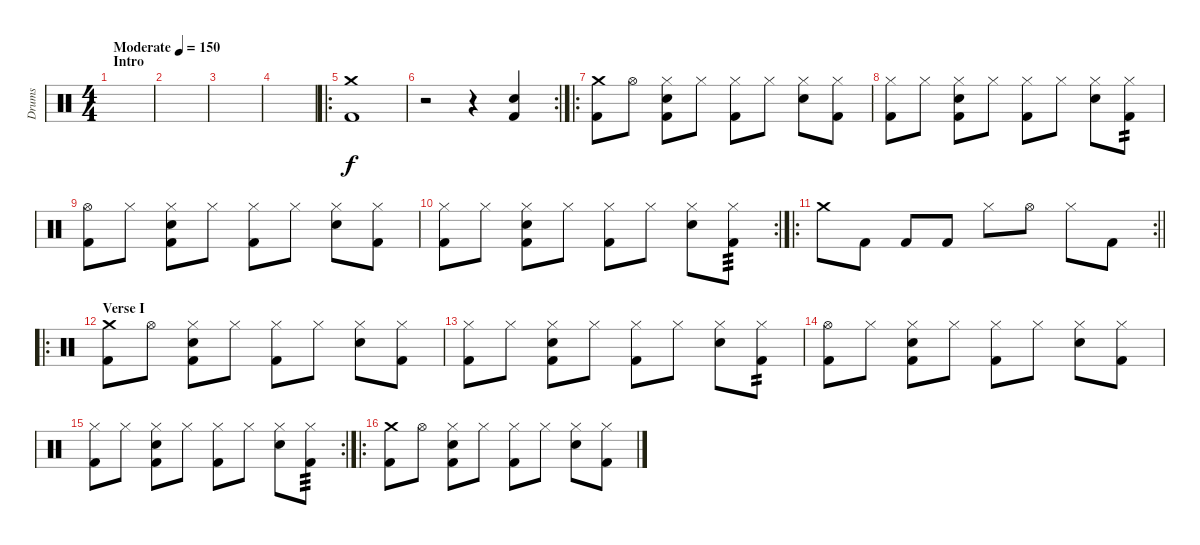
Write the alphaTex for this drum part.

\track ("Drums" "Drums") {instrument percussion}
\staff {score}
\articulation defaults
\ts (4 4)
\section ("" "Intro")
\tempo (150 "Moderate")
\clef neutral
\ks c
|
|
|
|
\ro
("Kick (hit) 2" "Crash medium (hit)").1 |
\rc 2
r.2 r.4 ("Kick (hit) 2" "Snare (hit) 2").4 |
\ro
("Kick (hit) 2" "Crash medium (hit)").8 "Hi-Hat (open)".8 ("Kick (hit) 2" "Snare (hit) 2" "Hi-Hat (closed)").8 "Hi-Hat (closed)".8 ("Kick (hit) 2" "Hi-Hat (closed)").8 "Hi-Hat (closed)".8 ("Snare (hit) 2" "Hi-Hat (closed)").8 ("Kick (hit) 2" "Hi-Hat (closed)").8 |
("Kick (hit) 2" "Hi-Hat (closed)").8 "Hi-Hat (closed)".8 ("Kick (hit) 2" "Snare (hit) 2" "Hi-Hat (closed)").8 "Hi-Hat (closed)".8 ("Kick (hit) 2" "Hi-Hat (closed)").8 "Hi-Hat (closed)".8 ("Snare (hit) 2" "Hi-Hat (closed)").8 ("Kick (hit) 2" "Hi-Hat (closed)").8{tp 2} |
("Kick (hit) 2" "Hi-Hat (open)").8 "Hi-Hat (closed)".8 ("Kick (hit) 2" "Snare (hit) 2" "Hi-Hat (closed)").8 "Hi-Hat (closed)".8 ("Kick (hit) 2" "Hi-Hat (closed)").8 "Hi-Hat (closed)".8 ("Snare (hit) 2" "Hi-Hat (closed)").8 ("Kick (hit) 2" "Hi-Hat (closed)").8 |
\rc 2
("Kick (hit) 2" "Hi-Hat (closed)").8 "Hi-Hat (closed)".8 ("Kick (hit) 2" "Snare (hit) 2" "Hi-Hat (closed)").8 "Hi-Hat (closed)".8 ("Kick (hit) 2" "Hi-Hat (closed)").8 "Hi-Hat (closed)".8 ("Snare (hit) 2" "Hi-Hat (closed)").8 ("Kick (hit) 2" "Hi-Hat (closed)").8{tp 3} |
\ro
\rc 2
\barLineRight lightlight "Crash medium (hit)".8 "Kick (hit) 2".8 "Kick (hit) 2".8 "Kick (hit) 2".8 "Hi-Hat (closed)".8 "Hi-Hat (open)".8 "Hi-Hat (closed)".8 "Kick (hit) 2".8
|
\ro
\section ("" "Verse I")
("Kick (hit) 2" "Crash medium (hit)").8 "Hi-Hat (open)".8 ("Kick (hit) 2" "Snare (hit) 2" "Hi-Hat (closed)").8 "Hi-Hat (closed)".8 ("Kick (hit) 2" "Hi-Hat (closed)").8 "Hi-Hat (closed)".8 ("Snare (hit) 2" "Hi-Hat (closed)").8 ("Kick (hit) 2" "Hi-Hat (closed)").8 |
("Kick (hit) 2" "Hi-Hat (closed)").8 "Hi-Hat (closed)".8 ("Kick (hit) 2" "Snare (hit) 2" "Hi-Hat (closed)").8 "Hi-Hat (closed)".8 ("Kick (hit) 2" "Hi-Hat (closed)").8 "Hi-Hat (closed)".8 ("Snare (hit) 2" "Hi-Hat (closed)").8 ("Kick (hit) 2" "Hi-Hat (closed)").8{tp 2} |
("Kick (hit) 2" "Hi-Hat (open)").8 "Hi-Hat (closed)".8 ("Kick (hit) 2" "Snare (hit) 2" "Hi-Hat (closed)").8 "Hi-Hat (closed)".8 ("Kick (hit) 2" "Hi-Hat (closed)").8 "Hi-Hat (closed)".8 ("Snare (hit) 2" "Hi-Hat (closed)").8 ("Kick (hit) 2" "Hi-Hat (closed)").8 |
\rc 2
("Kick (hit) 2" "Hi-Hat (closed)").8 "Hi-Hat (closed)".8 ("Kick (hit) 2" "Snare (hit) 2" "Hi-Hat (closed)").8 "Hi-Hat (closed)".8 ("Kick (hit) 2" "Hi-Hat (closed)").8 "Hi-Hat (closed)".8 ("Snare (hit) 2" "Hi-Hat (closed)").8 ("Kick (hit) 2" "Hi-Hat (closed)").8{tp 3} |
\ro
("Kick (hit) 2" "Crash medium (hit)").8 "Hi-Hat (open)".8 ("Kick (hit) 2" "Snare (hit) 2" "Hi-Hat (closed)").8 "Hi-Hat (closed)".8 ("Kick (hit) 2" "Hi-Hat (closed)").8 "Hi-Hat (closed)".8 ("Snare (hit) 2" "Hi-Hat (closed)").8 ("Kick (hit) 2" "Hi-Hat (closed)").8
